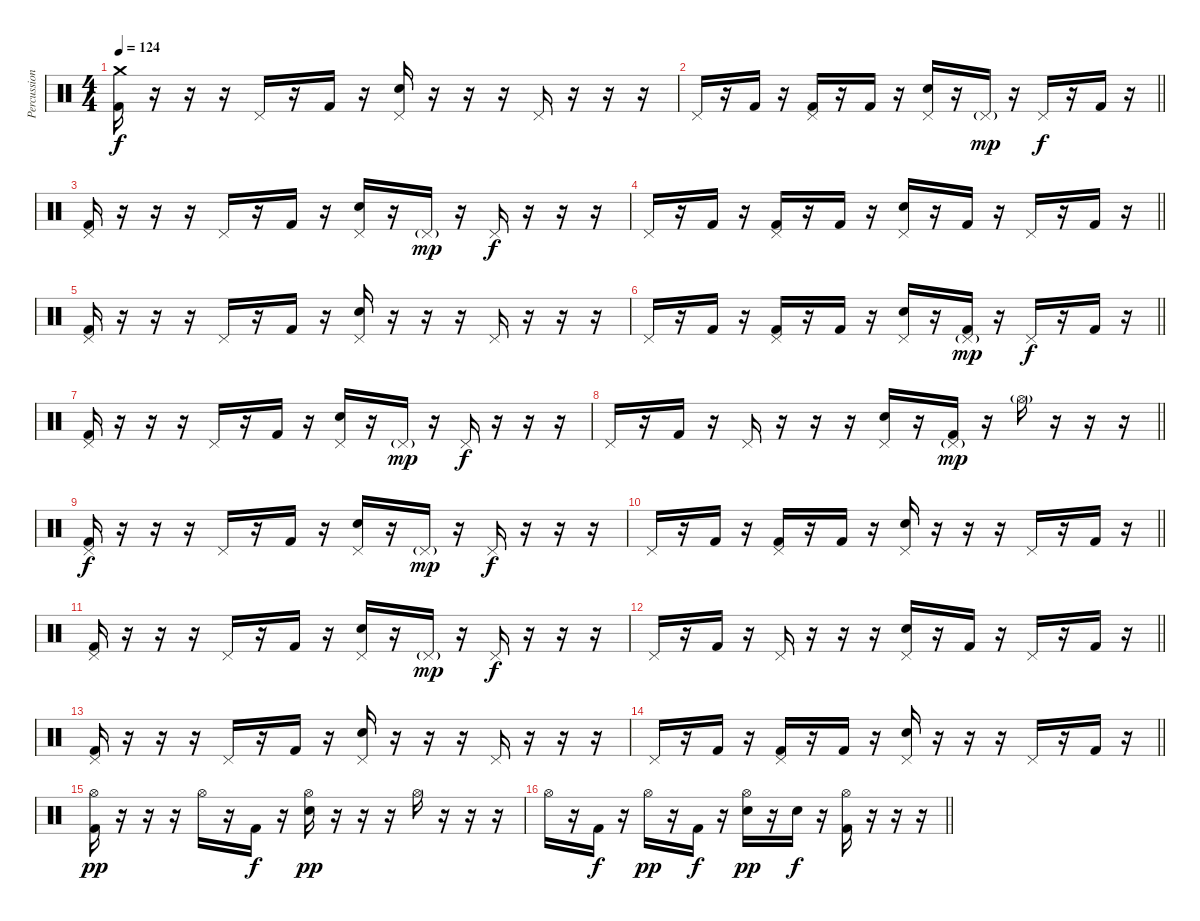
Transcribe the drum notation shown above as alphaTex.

\track ("Percussion" "Percussion") {instrument percussion}
\staff {score}
\articulation defaults
\ts (4 4)
\section ("" "")
\tempo 124
\clef neutral
\ks c
("Kick (hit) 2" "Crash medium (hit)").16{dy f} r.16 r.16 r.16 "Pedal Hi-Hat (hit)".16 r.16 "Kick (hit) 2".16 r.16 ("Electric Snare (hit)" "Pedal Hi-Hat (hit)").16 r.16 r.16 r.16 "Pedal Hi-Hat (hit)".16 r.16 r.16 r.16 |
\barLineRight lightlight "Pedal Hi-Hat (hit)".16
r.16 "Kick (hit) 2".16 r.16 ("Kick (hit) 2" "Pedal Hi-Hat (hit)").16 r.16 "Kick (hit) 2".16 r.16 ("Electric Snare (hit)" "Pedal Hi-Hat (hit)").16 r.16 "Pedal Hi-Hat (hit)"{g}.16{dy mp} r.16 "Pedal Hi-Hat (hit)".16{dy f} r.16 "Kick (hit) 2".16 r.16 |
("Kick (hit) 2" "Pedal Hi-Hat (hit)").16 r.16 r.16 r.16 "Pedal Hi-Hat (hit)".16 r.16 "Kick (hit) 2".16 r.16 ("Electric Snare (hit)" "Pedal Hi-Hat (hit)").16 r.16 "Pedal Hi-Hat (hit)"{g}.16{dy mp} r.16 "Pedal Hi-Hat (hit)".16{dy f} r.16 r.16 r.16 |
\barLineRight lightlight "Pedal Hi-Hat (hit)".16
r.16 "Kick (hit) 2".16 r.16 ("Kick (hit) 2" "Pedal Hi-Hat (hit)").16 r.16 "Kick (hit) 2".16 r.16 ("Electric Snare (hit)" "Pedal Hi-Hat (hit)").16 r.16 "Kick (hit) 2".16 r.16 "Pedal Hi-Hat (hit)".16 r.16 "Kick (hit) 2".16 r.16 |
("Kick (hit) 2" "Pedal Hi-Hat (hit)").16 r.16 r.16 r.16 "Pedal Hi-Hat (hit)".16 r.16 "Kick (hit) 2".16 r.16 ("Electric Snare (hit)" "Pedal Hi-Hat (hit)").16 r.16 r.16 r.16 "Pedal Hi-Hat (hit)".16 r.16 r.16 r.16 |
\barLineRight lightlight "Pedal Hi-Hat (hit)".16
r.16 "Kick (hit) 2".16 r.16 ("Kick (hit) 2" "Pedal Hi-Hat (hit)").16 r.16 "Kick (hit) 2".16 r.16 ("Electric Snare (hit)" "Pedal Hi-Hat (hit)").16 r.16 ("Kick (hit) 2" "Pedal Hi-Hat (hit)"{g}).16{dy mp} r.16 "Pedal Hi-Hat (hit)".16{dy f} r.16 "Kick (hit) 2".16 r.16 |
("Kick (hit) 2" "Pedal Hi-Hat (hit)").16 r.16 r.16 r.16 "Pedal Hi-Hat (hit)".16 r.16 "Kick (hit) 2".16 r.16 ("Electric Snare (hit)" "Pedal Hi-Hat (hit)").16 r.16 "Pedal Hi-Hat (hit)"{g}.16{dy mp} r.16 "Pedal Hi-Hat (hit)".16{dy f} r.16 r.16 r.16 |
\barLineRight lightlight "Pedal Hi-Hat (hit)".16
r.16 "Kick (hit) 2".16 r.16 "Pedal Hi-Hat (hit)".16 r.16 r.16 r.16 ("Electric Snare (hit)" "Pedal Hi-Hat (hit)").16 r.16 ("Kick (hit) 2" "Pedal Hi-Hat (hit)"{g}).16{dy mp} r.16 "Hi-Hat (open)"{g}.16 r.16 r.16 r.16 |
\section ("" "")
("Kick (hit) 2" "Pedal Hi-Hat (hit)").16{dy f} r.16 r.16 r.16 "Pedal Hi-Hat (hit)".16 r.16 "Kick (hit) 2".16 r.16 ("Electric Snare (hit)" "Pedal Hi-Hat (hit)").16 r.16 "Pedal Hi-Hat (hit)"{g}.16{dy mp} r.16 "Pedal Hi-Hat (hit)".16{dy f} r.16 r.16 r.16 |
\barLineRight lightlight "Pedal Hi-Hat (hit)".16
r.16 "Kick (hit) 2".16 r.16 ("Kick (hit) 2" "Pedal Hi-Hat (hit)").16 r.16 "Kick (hit) 2".16 r.16 ("Electric Snare (hit)" "Pedal Hi-Hat (hit)").16 r.16 r.16 r.16 "Pedal Hi-Hat (hit)".16 r.16 "Kick (hit) 2".16 r.16 |
("Kick (hit) 2" "Pedal Hi-Hat (hit)").16 r.16 r.16 r.16 "Pedal Hi-Hat (hit)".16 r.16 "Kick (hit) 2".16 r.16 ("Electric Snare (hit)" "Pedal Hi-Hat (hit)").16 r.16 "Pedal Hi-Hat (hit)"{g}.16{dy mp} r.16 "Pedal Hi-Hat (hit)".16{dy f} r.16 r.16 r.16 |
\barLineRight lightlight "Pedal Hi-Hat (hit)".16
r.16 "Kick (hit) 2".16 r.16 "Pedal Hi-Hat (hit)".16 r.16 r.16 r.16 ("Electric Snare (hit)" "Pedal Hi-Hat (hit)").16 r.16 "Kick (hit) 2".16 r.16 "Pedal Hi-Hat (hit)".16 r.16 "Kick (hit) 2".16 r.16 |
("Kick (hit) 2" "Pedal Hi-Hat (hit)").16 r.16 r.16 r.16 "Pedal Hi-Hat (hit)".16 r.16 "Kick (hit) 2".16 r.16 ("Electric Snare (hit)" "Pedal Hi-Hat (hit)").16 r.16 r.16 r.16 "Pedal Hi-Hat (hit)".16 r.16 r.16 r.16 |
\barLineRight lightlight "Pedal Hi-Hat (hit)".16
r.16 "Kick (hit) 2".16 r.16 ("Kick (hit) 2" "Pedal Hi-Hat (hit)").16 r.16 "Kick (hit) 2".16 r.16 ("Electric Snare (hit)" "Pedal Hi-Hat (hit)").16 r.16 r.16 r.16 "Pedal Hi-Hat (hit)".16 r.16 "Kick (hit) 2".16 r.16 |
("Kick (hit) 2" "Hi-Hat (open)").16{dy pp} r.16 r.16 r.16 "Hi-Hat (open)".16 r.16 "Kick (hit) 2".16{dy f} r.16 ("Electric Snare (hit)" "Hi-Hat (open)").16{dy pp} r.16 r.16 r.16 "Hi-Hat (open)".16 r.16 r.16 r.16 |
\barLineRight lightlight "Hi-Hat (open)".16
r.16 "Kick (hit) 2".16{dy f} r.16 "Hi-Hat (open)".16{dy pp} r.16 "Kick (hit) 2".16{dy f} r.16 ("Electric Snare (hit)" "Hi-Hat (open)").16{dy pp} r.16 "Electric Snare (hit)".16{dy f} r.16 ("Kick (hit) 2" "Hi-Hat (open)").16 r.16 r.16 r.16
